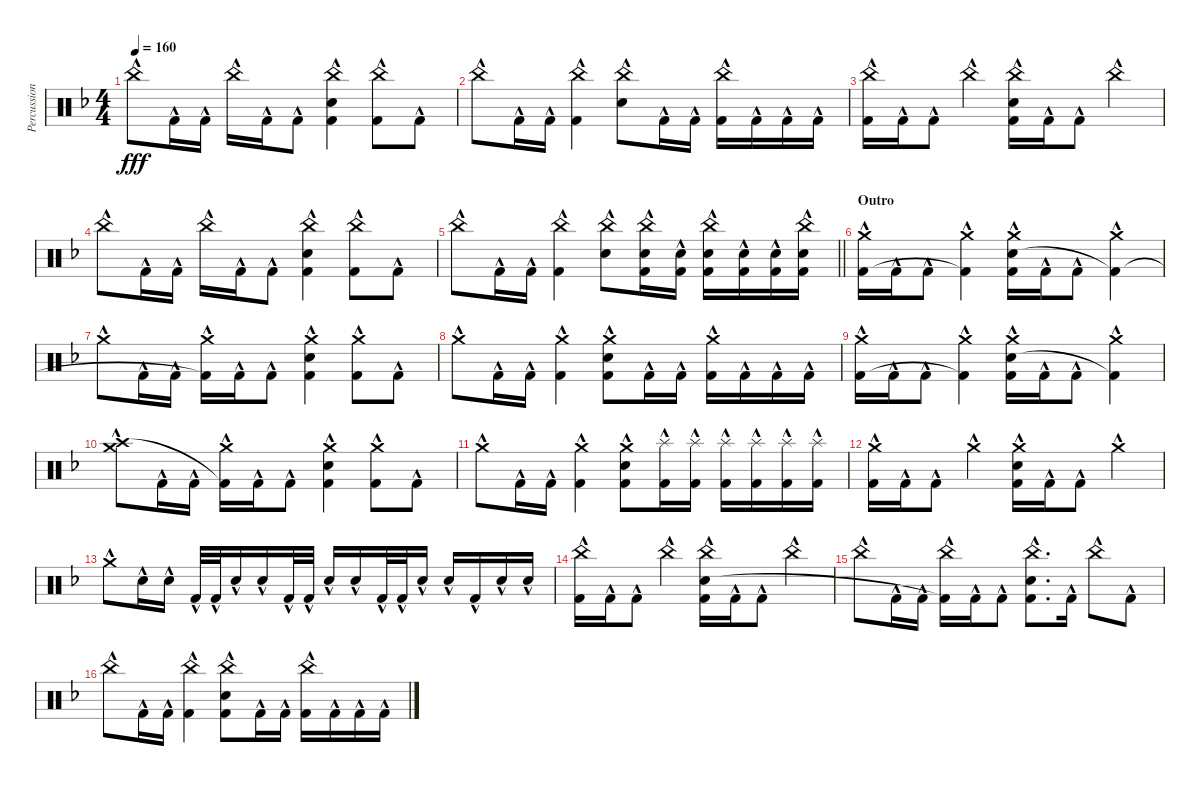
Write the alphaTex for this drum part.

\track ("Percussion" "Percussion") {instrument percussion}
\staff {score}
\articulation defaults
\ts (4 4)
\tempo 160
\clef neutral
\ks f "China (hit)"{hac}.8{dy fff} "Kick (hit) 2"{hac}.16 "Kick (hit) 2"{hac}.16 "China (hit)"{hac}.16 "Kick (hit) 2"{hac}.16 "Kick (hit) 2"{hac}.8
("China (hit)"{hac} "Electric Snare (hit)"{hac} "Kick (hit) 2"{hac}).4 ("China (hit)"{hac} "Kick (hit) 2"{hac}).8 "Kick (hit) 2"{hac}.8 |
"China (hit)"{hac}.8 "Kick (hit) 2"{hac}.16 "Kick (hit) 2"{hac}.16 ("China (hit)"{hac} "Kick (hit) 2"{hac}).4 ("China (hit)"{hac} "Electric Snare (hit)"{hac}).8 "Kick (hit) 2"{hac}.16 "Kick (hit) 2"{hac}.16 ("China (hit)"{hac} "Kick (hit) 2"{hac}).16 "Kick (hit) 2"{hac}.16 "Kick (hit) 2"{hac}.16 "Kick (hit) 2"{hac}.16 |
("China (hit)"{hac} "Kick (hit) 2"{hac}).16 "Kick (hit) 2"{hac}.16 "Kick (hit) 2"{hac}.8 "China (hit)"{hac}.4 ("China (hit)"{hac} "Electric Snare (hit)"{hac} "Kick (hit) 2"{hac}).16 "Kick (hit) 2"{hac}.16 "Kick (hit) 2"{hac}.8 "China (hit)"{hac}.4 |
"China (hit)"{hac}.8 "Kick (hit) 2"{hac}.16 "Kick (hit) 2"{hac}.16 "China (hit)"{hac}.16 "Kick (hit) 2"{hac}.16 "Kick (hit) 2"{hac}.8 ("China (hit)"{hac} "Electric Snare (hit)"{hac} "Kick (hit) 2"{hac}).4 ("China (hit)"{hac} "Kick (hit) 2"{hac}).8 "Kick (hit) 2"{hac}.8 |
\barLineRight lightlight "China (hit)"{hac}.8 "Kick (hit) 2"{hac}.16 "Kick (hit) 2"{hac}.16
("China (hit)"{hac} "Kick (hit) 2"{hac}).4 ("China (hit)"{hac} "Electric Snare (hit)"{hac}).8 ("China (hit)"{hac} "Electric Snare (hit)"{hac} "Kick (hit) 2"{hac}).16 ("Electric Snare (hit)"{hac} "Kick (hit) 2"{hac}).16 ("China (hit)"{hac} "Electric Snare (hit)"{hac} "Kick (hit) 2"{hac}).16 ("Electric Snare (hit)"{hac} "Kick (hit) 2"{hac}).16 ("Electric Snare (hit)"{hac} "Kick (hit) 2"{hac}).16 ("China (hit)"{hac} "Electric Snare (hit)"{hac} "Kick (hit) 2"{hac}).16 |
\section ("" "Outro")
("Crash medium (hit)"{hac} "Kick (hit) 2"{hac}).16 "Kick (hit) 2"{hac}.16 "Kick (hit) 2"{hac}.8 ("Crash medium (hit)"{hac} "Kick (hit) 2"{t}).4 ("Crash medium (hit)"{hac} "Electric Snare (hit)"{hac} "Kick (hit) 2"{hac}).16 "Kick (hit) 2"{hac}.16 "Kick (hit) 2"{hac}.8 ("Crash medium (hit)"{hac} "Kick (hit) 2"{t}).4 |
"Crash medium (hit)"{hac}.8 "Kick (hit) 2"{hac}.16 "Kick (hit) 2"{hac}.16 ("Crash medium (hit)"{hac} "Kick (hit) 2"{t}).16 "Kick (hit) 2"{hac}.16 "Kick (hit) 2"{hac}.8 ("Crash medium (hit)"{hac} "Electric Snare (hit)"{hac} "Kick (hit) 2"{hac}).4 ("Crash medium (hit)"{hac} "Kick (hit) 2"{hac}).8 "Kick (hit) 2"{hac}.8 |
"Crash medium (hit)"{hac}.8 "Kick (hit) 2"{hac}.16 "Kick (hit) 2"{hac}.16 ("Crash medium (hit)"{hac} "Kick (hit) 2"{hac}).4 ("Crash medium (hit)"{hac} "Electric Snare (hit)"{hac} "Kick (hit) 2"{hac}).8 "Kick (hit) 2"{hac}.16 "Kick (hit) 2"{hac}.16 ("Crash medium (hit)"{hac} "Kick (hit) 2"{hac}).16 "Kick (hit) 2"{hac}.16 "Kick (hit) 2"{hac}.16 "Kick (hit) 2"{hac}.16 |
("Crash medium (hit)"{hac} "Kick (hit) 2"{hac}).16 "Kick (hit) 2"{hac}.16 "Kick (hit) 2"{hac}.8 ("Crash medium (hit)"{hac} "Kick (hit) 2"{t}).4 ("Crash medium (hit)"{hac} "Electric Snare (hit)"{hac} "Kick (hit) 2"{hac}).16 "Kick (hit) 2"{hac}.16 "Kick (hit) 2"{hac}.8 ("Crash medium (hit)"{hac} "Kick (hit) 2"{t}).4 |
("Crash medium (hit)"{hac} "Crash high (hit)"{hac}).8 "Kick (hit) 2"{hac}.16 "Kick (hit) 2"{hac}.16 ("Crash medium (hit)"{hac} "Kick (hit) 2"{t}).16 "Kick (hit) 2"{hac}.16 "Kick (hit) 2"{hac}.8 ("Crash medium (hit)"{hac} "Electric Snare (hit)"{hac} "Kick (hit) 2"{hac}).4 ("Crash medium (hit)"{hac} "Kick (hit) 2"{hac}).8 "Kick (hit) 2"{hac}.8 |
"Crash medium (hit)"{hac}.8 "Kick (hit) 2"{hac}.16 "Kick (hit) 2"{hac}.16 ("Crash medium (hit)"{hac} "Kick (hit) 2"{hac}).4 ("Crash medium (hit)"{hac} "Electric Snare (hit)"{hac} "Kick (hit) 2"{hac}).8 ("Splash (hit)"{hac} "Kick (hit) 2"{hac}).16 ("Splash (hit)"{hac} "Kick (hit) 2"{hac}).16 ("Splash (hit)"{hac} "Kick (hit) 2"{hac}).16 ("Splash (hit)"{hac} "Kick (hit) 2"{hac}).16 ("Splash (hit)"{hac} "Kick (hit) 2"{hac}).16 ("Splash (hit)"{hac} "Kick (hit) 2"{hac}).16 |
("Crash medium (hit)"{hac} "Kick (hit) 2"{hac}).16 "Kick (hit) 2"{hac}.16 "Kick (hit) 2"{hac}.8 "Crash medium (hit)"{hac}.4 ("Crash medium (hit)"{hac} "Electric Snare (hit)"{hac} "Kick (hit) 2"{hac}).16 "Kick (hit) 2"{hac}.16 "Kick (hit) 2"{hac}.8 "Crash medium (hit)"{hac}.4 |
"Crash medium (hit)"{hac}.8 "Electric Snare (hit)"{hac}.16 "Electric Snare (hit)"{hac}.16 "Kick (hit) 2"{hac}.32 "Kick (hit) 2"{hac}.32 "Electric Snare (hit)"{hac}.16 "Electric Snare (hit)"{hac}.16 "Kick (hit) 2"{hac}.32 "Kick (hit) 2"{hac}.32 "Electric Snare (hit)"{hac}.16 "Electric Snare (hit)"{hac}.16 "Kick (hit) 2"{hac}.32 "Kick (hit) 2"{hac}.32 "Electric Snare (hit)"{hac}.16 "Electric Snare (hit)"{hac}.16 "Kick (hit) 2"{hac}.16 "Electric Snare (hit)"{hac}.16 "Electric Snare (hit)"{hac}.16 |
("China (hit)"{hac} "Kick (hit) 2"{hac}).16 "Kick (hit) 2"{hac}.16 "Kick (hit) 2"{hac}.8 "China (hit)"{hac}.4 ("China (hit)"{hac} "Electric Snare (hit)"{hac} "Kick (hit) 2"{hac}).16 "Kick (hit) 2"{hac}.16 "Kick (hit) 2"{hac}.8 "China (hit)"{hac}.4 |
"China (hit)"{hac}.8 "Kick (hit) 2"{hac}.16 "Kick (hit) 2"{hac}.16 ("China (hit)"{hac} "Kick (hit) 2"{t}).16 "Kick (hit) 2"{hac}.16 "Kick (hit) 2"{hac}.8 ("China (hit)"{hac} "Electric Snare (hit)"{hac} "Kick (hit) 2"{hac}).8{d} "Kick (hit) 2"{hac}.16 "China (hit)"{hac}.8 "Kick (hit) 2"{hac}.8 |
"China (hit)"{hac}.8 "Kick (hit) 2"{hac}.16 "Kick (hit) 2"{hac}.16 ("China (hit)"{hac} "Kick (hit) 2"{hac}).4 ("China (hit)"{hac} "Electric Snare (hit)"{hac} "Kick (hit) 2"{hac}).8 "Kick (hit) 2"{hac}.16 "Kick (hit) 2"{hac}.16 ("China (hit)"{hac} "Kick (hit) 2"{hac}).16 "Kick (hit) 2"{hac}.16 "Kick (hit) 2"{hac}.16 "Kick (hit) 2"{hac}.16
